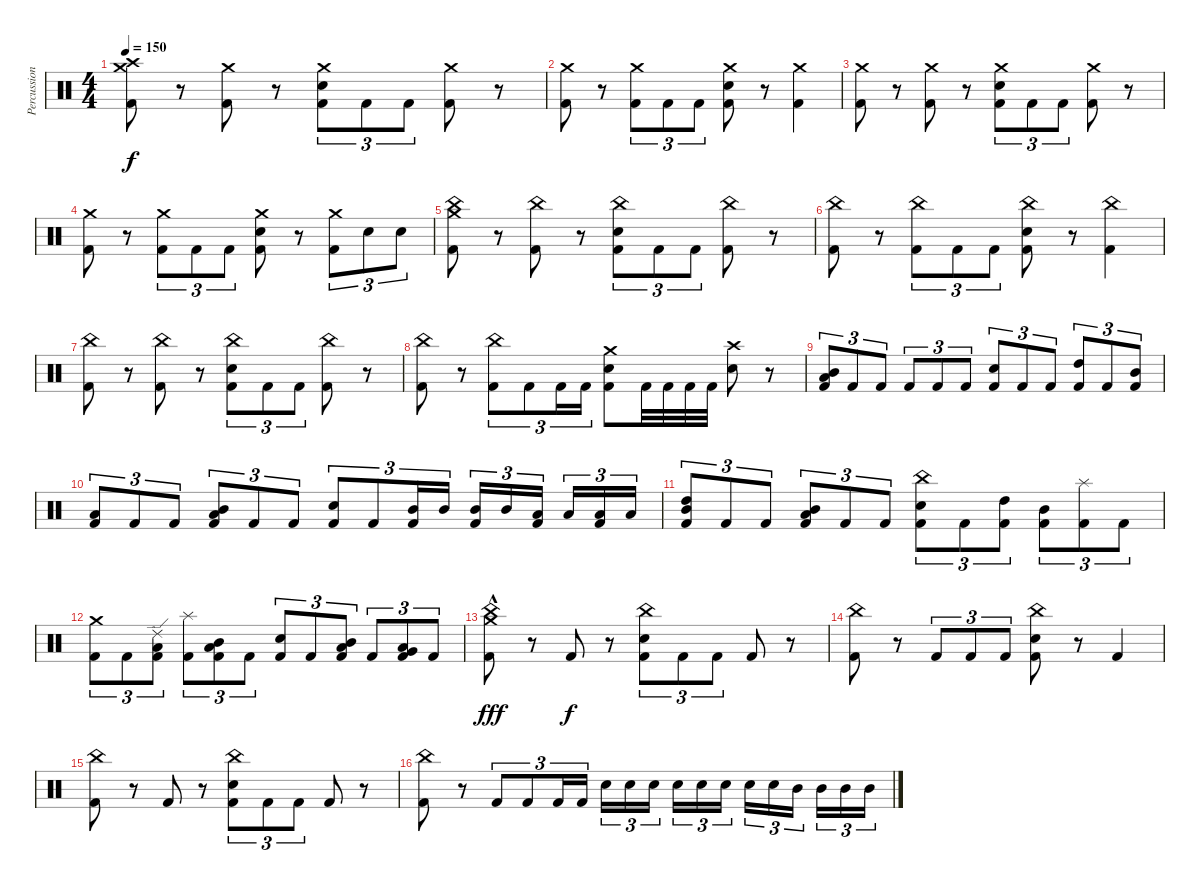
\track ("Percussion" "Percussion") {instrument percussion}
\staff {score}
\articulation defaults
\ts (4 4)
\tempo 150
\clef neutral
\ks c
("Crash medium (hit)" "Crash high (hit)" "Kick (hit) 2").8{dy f} r.8 ("Crash medium (hit)" "Kick (hit) 2").8 r.8 ("Crash medium (hit)" "Electric Snare (hit)" "Kick (hit) 2").8{tu (3 2)} "Kick (hit) 2".8{tu (3 2)} "Kick (hit) 2".8{tu (3 2)} ("Crash medium (hit)" "Kick (hit) 2").8 r.8 |
("Crash medium (hit)" "Kick (hit) 2").8 r.8 ("Crash medium (hit)" "Kick (hit) 2").8{tu (3 2)} "Kick (hit) 2".8{tu (3 2)} "Kick (hit) 2".8{tu (3 2)} ("Crash medium (hit)" "Electric Snare (hit)" "Kick (hit) 2").8 r.8 ("Crash medium (hit)" "Kick (hit) 2").4 |
("Crash medium (hit)" "Kick (hit) 2").8 r.8 ("Crash medium (hit)" "Kick (hit) 2").8 r.8 ("Crash medium (hit)" "Electric Snare (hit)" "Kick (hit) 2").8{tu (3 2)} "Kick (hit) 2".8{tu (3 2)} "Kick (hit) 2".8{tu (3 2)} ("Crash medium (hit)" "Kick (hit) 2").8 r.8 |
("Crash medium (hit)" "Kick (hit) 2").8 r.8 ("Crash medium (hit)" "Kick (hit) 2").8{tu (3 2)} "Kick (hit) 2".8{tu (3 2)} "Kick (hit) 2".8{tu (3 2)} ("Crash medium (hit)" "Electric Snare (hit)" "Kick (hit) 2").8 r.8 ("Crash medium (hit)" "Kick (hit) 2").8{tu (3 2)} "Electric Snare (hit)".8{tu (3 2)} "Electric Snare (hit)".8{tu (3 2)} |
("China (hit)" "Crash medium (hit)" "Kick (hit) 2").8 r.8 ("China (hit)" "Kick (hit) 2").8 r.8 ("China (hit)" "Electric Snare (hit)" "Kick (hit) 2").8{tu (3 2)} "Kick (hit) 2".8{tu (3 2)} "Kick (hit) 2".8{tu (3 2)} ("China (hit)" "Kick (hit) 2").8 r.8 |
("China (hit)" "Kick (hit) 2").8 r.8 ("China (hit)" "Kick (hit) 2").8{tu (3 2)} "Kick (hit) 2".8{tu (3 2)} "Kick (hit) 2".8{tu (3 2)} ("China (hit)" "Electric Snare (hit)" "Kick (hit) 2").8 r.8 ("China (hit)" "Kick (hit) 2").4 |
("China (hit)" "Kick (hit) 2").8 r.8 ("China (hit)" "Kick (hit) 2").8 r.8 ("China (hit)" "Electric Snare (hit)" "Kick (hit) 2").8{tu (3 2)} "Kick (hit) 2".8{tu (3 2)} "Kick (hit) 2".8{tu (3 2)} ("China (hit)" "Kick (hit) 2").8 r.8 |
("China (hit)" "Kick (hit) 2").8 r.8 ("China (hit)" "Kick (hit) 2").8{tu (3 2)} "Kick (hit) 2".8{tu (3 2)} "Kick (hit) 2".16{tu (3 2)} "Kick (hit) 2".16{tu (3 2)} ("Crash medium (hit)" "Electric Snare (hit)" "Kick (hit) 2").8 "Kick (hit) 2".32 "Kick (hit) 2".32 "Kick (hit) 2".32 "Kick (hit) 2".32 ("Crash high (hit)" "Electric Snare (hit)").8 r.8 |
("Mid Tom (hit)" "Low Tom (hit)" "Kick (hit) 2").8{tu (3 2)} "Kick (hit) 2".8{tu (3 2)} "Kick (hit) 2".8{tu (3 2)} "Kick (hit) 2".8{tu (3 2)} "Kick (hit) 2".8{tu (3 2)} "Kick (hit) 2".8{tu (3 2)} ("Electric Snare (hit)" "Kick (hit) 2").8{tu (3 2)} "Kick (hit) 2".8{tu (3 2)} "Kick (hit) 2".8{tu (3 2)} ("High Tom (hit)" "Kick (hit) 2").8{tu (3 2)} "Kick (hit) 2".8{tu (3 2)} ("Mid Tom (hit)" "Kick (hit) 2").8{tu (3 2)} |
("Low Tom (hit)" "Kick (hit) 2").8{tu (3 2)} "Kick (hit) 2".8{tu (3 2)} "Kick (hit) 2".8{tu (3 2)} ("Mid Tom (hit)" "Low Tom (hit)" "Kick (hit) 2").8{tu (3 2)} "Kick (hit) 2".8{tu (3 2)} "Kick (hit) 2".8{tu (3 2)} ("Electric Snare (hit)" "Kick (hit) 2").8{tu (3 2)} "Kick (hit) 2".8{tu (3 2)} ("Mid Tom (hit)" "Kick (hit) 2").16{tu (3 2)} "Mid Tom (hit)".16{tu (3 2)} ("Mid Tom (hit)" "Kick (hit) 2").16{tu (3 2)} "Mid Tom (hit)".16{tu (3 2)} ("Low Tom (hit)" "Kick (hit) 2").16{tu (3 2) beam splitsecondary} "Low Tom (hit)".16{tu (3 2)} ("Low Tom (hit)" "Kick (hit) 2").16{tu (3 2)} "Low Tom (hit)".16{tu (3 2)} |
("High Tom (hit)" "Mid Tom (hit)" "Kick (hit) 2").8{tu (3 2)} "Kick (hit) 2".8{tu (3 2)} "Kick (hit) 2".8{tu (3 2)} ("Low Tom (hit)" "Mid Tom (hit)" "Kick (hit) 2").8{tu (3 2)} "Kick (hit) 2".8{tu (3 2)} "Kick (hit) 2".8{tu (3 2)} ("China (hit)" "Electric Snare (hit)" "Kick (hit) 2").8{tu (3 2)} "Kick (hit) 2".8{tu (3 2)} ("High Tom (hit)" "Kick (hit) 2").8{tu (3 2)} ("Mid Tom (hit)" "Kick (hit) 2").8{tu (3 2)} ("Splash (hit)" "Kick (hit) 2").8{tu (3 2)} "Kick (hit) 2".8{tu (3 2)} |
("Crash medium (hit)" "Kick (hit) 2").8{tu (3 2)} "Kick (hit) 2".8{tu (3 2)} ("Ride (edge) 2" "Low Tom (hit)" "Kick (hit) 2").8{tu (3 2)} ("Splash (hit)" "Kick (hit) 2").8{tu (3 2)} ("Low Tom (hit)" "Mid Tom (hit)" "Kick (hit) 2").8{tu (3 2)} "Kick (hit) 2".8{tu (3 2)} ("Electric Snare (hit)" "Kick (hit) 2").8{tu (3 2)} "Kick (hit) 2".8{tu (3 2)} ("Low Tom (hit)" "Mid Tom (hit)" "Kick (hit) 2").8{tu (3 2)} "Kick (hit) 2".8{tu (3 2)} ("Low Tom (hit)" "Very Low Tom (hit)" "Kick (hit) 2").8{tu (3 2)} "Kick (hit) 2".8{tu (3 2)} |
("China (hit)"{hac} "Crash medium (hit)"{hac} "Kick (hit) 2"{hac}).8{dy fff} r.8 "Kick (hit) 2".8{dy f} r.8 ("China (hit)" "Electric Snare (hit)" "Kick (hit) 2").8{tu (3 2)} "Kick (hit) 2".8{tu (3 2)} "Kick (hit) 2".8{tu (3 2)} "Kick (hit) 2".8 r.8 |
("China (hit)" "Kick (hit) 2").8 r.8 "Kick (hit) 2".8{tu (3 2)} "Kick (hit) 2".8{tu (3 2)} "Kick (hit) 2".8{tu (3 2)} ("China (hit)" "Electric Snare (hit)" "Kick (hit) 2").8 r.8 "Kick (hit) 2".4 |
("China (hit)" "Kick (hit) 2").8 r.8 "Kick (hit) 2".8 r.8 ("China (hit)" "Electric Snare (hit)" "Kick (hit) 2").8{tu (3 2)} "Kick (hit) 2".8{tu (3 2)} "Kick (hit) 2".8{tu (3 2)} "Kick (hit) 2".8 r.8 |
("China (hit)" "Kick (hit) 2").8 r.8 "Kick (hit) 2".8{tu (3 2)} "Kick (hit) 2".8{tu (3 2)} "Kick (hit) 2".16{tu (3 2)} "Kick (hit) 2".16{tu (3 2)} "Electric Snare (hit)".16{tu (3 2)} "Electric Snare (hit)".16{tu (3 2)} "Electric Snare (hit)".16{tu (3 2) beam splitsecondary} "Electric Snare (hit)".16{tu (3 2)} "Electric Snare (hit)".16{tu (3 2)} "Electric Snare (hit)".16{tu (3 2)} "Electric Snare (hit)".16{tu (3 2)} "Electric Snare (hit)".16{tu (3 2)} "Mid Tom (hit)".16{tu (3 2) beam splitsecondary} "Mid Tom (hit)".16{tu (3 2)} "Mid Tom (hit)".16{tu (3 2)} "Mid Tom (hit)".16{tu (3 2)}
